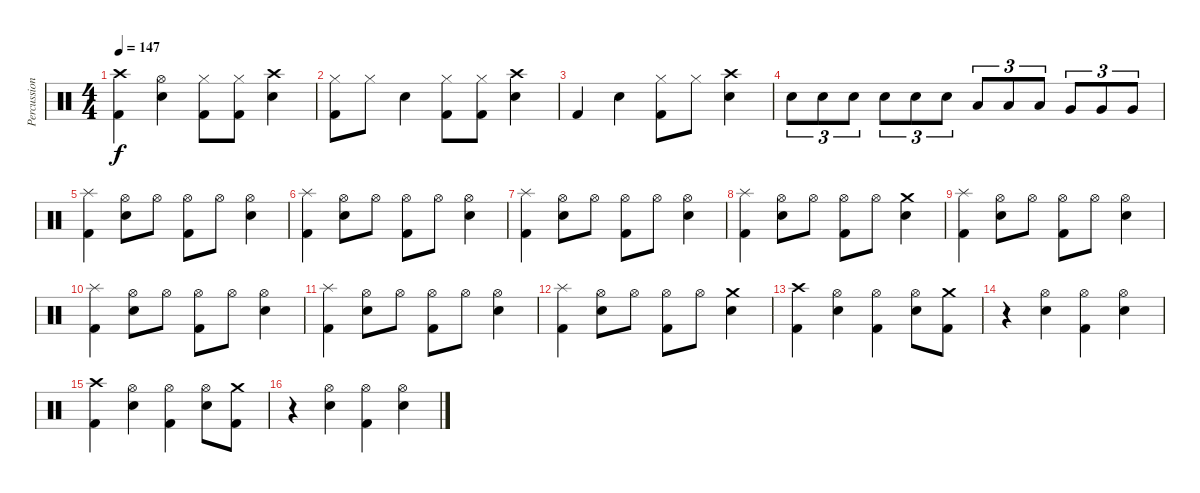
\track ("Percussion" "Percussion") {instrument percussion}
\staff {score}
\articulation defaults
\ts (4 4)
\tempo 147
\clef neutral
\ks c
("Crash high (hit)" "Kick (hit) 2").4{dy f} ("Hi-Hat (open)" "Snare (hit) 2").4 ("Hi-Hat (closed)" "Kick (hit) 2").8 ("Hi-Hat (closed)" "Kick (hit) 2").8 ("Crash high (hit)" "Snare (hit) 2").4 |
("Hi-Hat (closed)" "Kick (hit) 2").8 "Hi-Hat (closed)".8 "Snare (hit) 2".4 ("Hi-Hat (closed)" "Kick (hit) 2").8 ("Hi-Hat (closed)" "Kick (hit) 2").8 ("Crash high (hit)" "Snare (hit) 2").4 |
"Kick (hit) 2".4 "Snare (hit) 2".4 ("Hi-Hat (closed)" "Kick (hit) 2").8 "Hi-Hat (closed)".8 ("Crash high (hit)" "Snare (hit) 2").4 |
"Snare (hit) 2".8{tu (3 2)} "Snare (hit) 2".8{tu (3 2)} "Snare (hit) 2".8{tu (3 2)} "Snare (hit) 2".8{tu (3 2)} "Snare (hit) 2".8{tu (3 2)} "Snare (hit) 2".8{tu (3 2)} "Low Tom (hit)".8{tu (3 2)} "Low Tom (hit)".8{tu (3 2)} "Low Tom (hit)".8{tu (3 2)} "Very Low Tom (hit)".8{tu (3 2)} "Very Low Tom (hit)".8{tu (3 2)} "Very Low Tom (hit)".8{tu (3 2)} |
("Splash (hit)" "Kick (hit) 2").4 ("Hi-Hat (open)" "Snare (hit) 2").8 "Hi-Hat (open)".8 ("Hi-Hat (open)" "Kick (hit) 2").8 "Hi-Hat (open)".8 ("Hi-Hat (open)" "Snare (hit) 2").4 |
("Splash (hit)" "Kick (hit) 2").4 ("Hi-Hat (open)" "Snare (hit) 2").8 "Hi-Hat (open)".8 ("Hi-Hat (open)" "Kick (hit) 2").8 "Hi-Hat (open)".8 ("Hi-Hat (open)" "Snare (hit) 2").4 |
("Splash (hit)" "Kick (hit) 2").4 ("Hi-Hat (open)" "Snare (hit) 2").8 "Hi-Hat (open)".8 ("Hi-Hat (open)" "Kick (hit) 2").8 "Hi-Hat (open)".8 ("Hi-Hat (open)" "Snare (hit) 2").4 |
("Splash (hit)" "Kick (hit) 2").4 ("Hi-Hat (open)" "Snare (hit) 2").8 "Hi-Hat (open)".8 ("Hi-Hat (open)" "Kick (hit) 2").8 "Hi-Hat (open)".8 ("Crash medium (hit)" "Snare (hit) 2").4 |
("Splash (hit)" "Kick (hit) 2").4 ("Hi-Hat (open)" "Snare (hit) 2").8 "Hi-Hat (open)".8 ("Hi-Hat (open)" "Kick (hit) 2").8 "Hi-Hat (open)".8 ("Hi-Hat (open)" "Snare (hit) 2").4 |
("Splash (hit)" "Kick (hit) 2").4 ("Hi-Hat (open)" "Snare (hit) 2").8 "Hi-Hat (open)".8 ("Hi-Hat (open)" "Kick (hit) 2").8 "Hi-Hat (open)".8 ("Hi-Hat (open)" "Snare (hit) 2").4 |
("Splash (hit)" "Kick (hit) 2").4 ("Hi-Hat (open)" "Snare (hit) 2").8 "Hi-Hat (open)".8 ("Hi-Hat (open)" "Kick (hit) 2").8 "Hi-Hat (open)".8 ("Hi-Hat (open)" "Snare (hit) 2").4 |
("Splash (hit)" "Kick (hit) 2").4 ("Hi-Hat (open)" "Snare (hit) 2").8 "Hi-Hat (open)".8 ("Hi-Hat (open)" "Kick (hit) 2").8 "Hi-Hat (open)".8 ("Crash medium (hit)" "Snare (hit) 2").4 |
("Crash high (hit)" "Kick (hit) 2").4 ("Hi-Hat (open)" "Snare (hit) 2").4 ("Hi-Hat (open)" "Kick (hit) 2").4 ("Hi-Hat (open)" "Snare (hit) 2").8 ("Crash medium (hit)" "Kick (hit) 2").8 |
r.4 ("Hi-Hat (open)" "Snare (hit) 2").4 ("Hi-Hat (open)" "Kick (hit) 2").4 ("Hi-Hat (open)" "Snare (hit) 2").4 |
("Crash high (hit)" "Kick (hit) 2").4 ("Hi-Hat (open)" "Snare (hit) 2").4 ("Hi-Hat (open)" "Kick (hit) 2").4 ("Hi-Hat (open)" "Snare (hit) 2").8 ("Crash medium (hit)" "Kick (hit) 2").8 |
r.4 ("Hi-Hat (open)" "Snare (hit) 2").4 ("Hi-Hat (open)" "Kick (hit) 2").4 ("Hi-Hat (open)" "Snare (hit) 2").4
